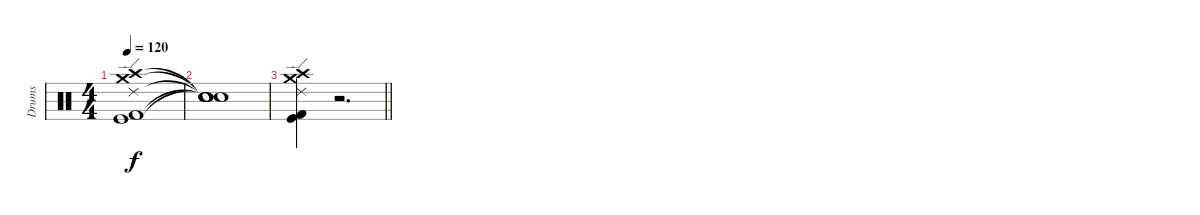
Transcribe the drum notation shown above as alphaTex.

\track ("Drums" "Drums") {instrument percussion}
\staff {score}
\articulation defaults
\ts (4 4)
\tempo 120
\clef neutral
\ks c
("Crash medium (hit)" "Ride (edge) 2" "Crash high (hit)" "Kick (hit)" "Kick (hit) 2").1{dy f} |
("Snare (hit)"{t} "Snare (hit)"{t} "Snare (hit)"{t} "Snare (hit)"{t} "Snare (hit)"{t}).1 |
\barLineRight lightlight
("Crash medium (hit)" "Ride (edge) 2" "Crash high (hit)" "Kick (hit)" "Kick (hit) 2").4 r.2{d}
